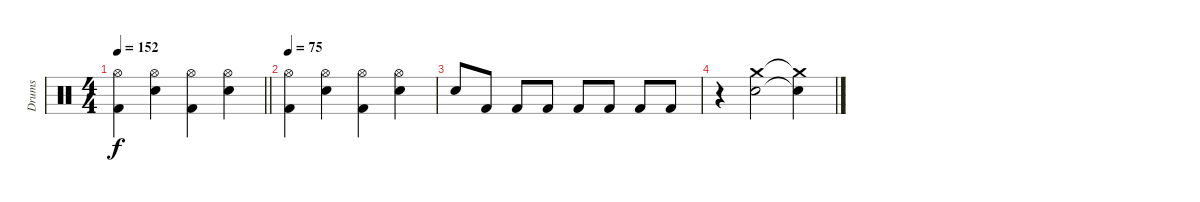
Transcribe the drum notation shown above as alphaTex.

\track ("Drums" "Drums") {instrument percussion}
\staff {score}
\articulation defaults
\ts (4 4)
\tempo 152
\clef neutral
\barLineRight lightlight
\ks c
("Hi-Hat (open)" "Kick (hit) 2").4{dy f} ("Hi-Hat (open)" "Electric Snare (hit)").4 ("Hi-Hat (open)" "Kick (hit) 2").4 ("Hi-Hat (open)" "Electric Snare (hit)").4 |
\tempo 75
("Hi-Hat (open)" "Kick (hit) 2").4 ("Hi-Hat (open)" "Electric Snare (hit)").4 ("Hi-Hat (open)" "Kick (hit) 2").4 ("Hi-Hat (open)" "Electric Snare (hit)").4 |
"Electric Snare (hit)".8 "Kick (hit) 2".8 "Kick (hit) 2".8 "Kick (hit) 2".8 "Kick (hit) 2".8 "Kick (hit) 2".8 "Kick (hit) 2".8 "Kick (hit) 2".8 |
r.4 ("Crash medium (hit)" "Electric Snare (hit)").2 ("Crash medium (hit)"{t} "Electric Snare (hit)"{t}).4
